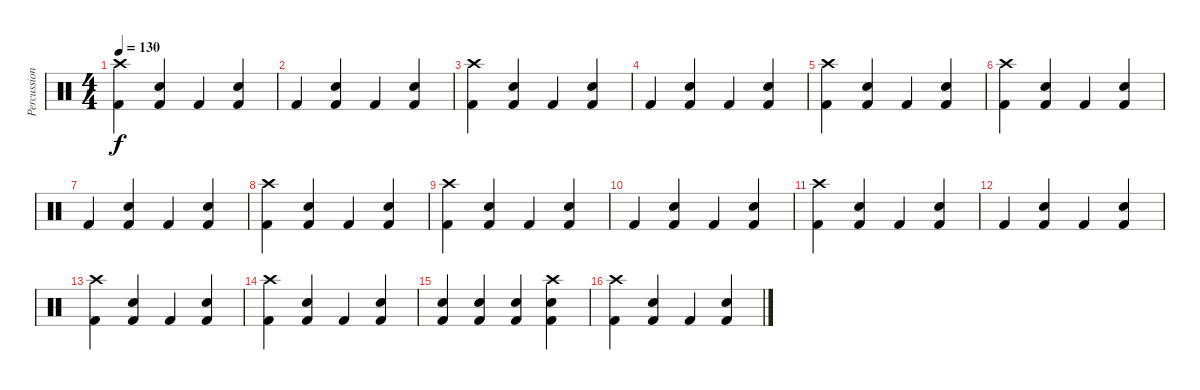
\track ("Percussion" "Percussion") {instrument percussion}
\staff {score}
\articulation defaults
\ts (4 4)
\tempo 130
\clef neutral
\ks c
("Crash high (hit)" "Kick (hit) 2").4{dy f} ("Kick (hit) 2" "Snare (hit) 2").4 "Kick (hit) 2".4 ("Kick (hit) 2" "Snare (hit) 2").4 |
"Kick (hit) 2".4 ("Kick (hit) 2" "Snare (hit) 2").4 "Kick (hit) 2".4 ("Kick (hit) 2" "Snare (hit) 2").4 |
("Crash high (hit)" "Kick (hit) 2").4 ("Kick (hit) 2" "Snare (hit) 2").4 "Kick (hit) 2".4 ("Kick (hit) 2" "Snare (hit) 2").4 |
"Kick (hit) 2".4 ("Kick (hit) 2" "Snare (hit) 2").4 "Kick (hit) 2".4 ("Kick (hit) 2" "Snare (hit) 2").4 |
("Crash high (hit)" "Kick (hit) 2").4 ("Kick (hit) 2" "Snare (hit) 2").4 "Kick (hit) 2".4 ("Kick (hit) 2" "Snare (hit) 2").4 |
("Crash high (hit)" "Kick (hit) 2").4 ("Kick (hit) 2" "Snare (hit) 2").4 "Kick (hit) 2".4 ("Kick (hit) 2" "Snare (hit) 2").4 |
"Kick (hit) 2".4 ("Kick (hit) 2" "Snare (hit) 2").4 "Kick (hit) 2".4 ("Kick (hit) 2" "Snare (hit) 2").4 |
("Crash high (hit)" "Kick (hit) 2").4 ("Kick (hit) 2" "Snare (hit) 2").4 "Kick (hit) 2".4 ("Kick (hit) 2" "Snare (hit) 2").4 |
("Crash high (hit)" "Kick (hit) 2").4 ("Kick (hit) 2" "Snare (hit) 2").4 "Kick (hit) 2".4 ("Kick (hit) 2" "Snare (hit) 2").4 |
"Kick (hit) 2".4 ("Kick (hit) 2" "Snare (hit) 2").4 "Kick (hit) 2".4 ("Kick (hit) 2" "Snare (hit) 2").4 |
("Crash high (hit)" "Kick (hit) 2").4 ("Kick (hit) 2" "Snare (hit) 2").4 "Kick (hit) 2".4 ("Kick (hit) 2" "Snare (hit) 2").4 |
"Kick (hit) 2".4 ("Kick (hit) 2" "Snare (hit) 2").4 "Kick (hit) 2".4 ("Kick (hit) 2" "Snare (hit) 2").4 |
("Crash high (hit)" "Kick (hit) 2").4 ("Kick (hit) 2" "Snare (hit) 2").4 "Kick (hit) 2".4 ("Kick (hit) 2" "Snare (hit) 2").4 |
("Crash high (hit)" "Kick (hit) 2").4 ("Kick (hit) 2" "Snare (hit) 2").4 "Kick (hit) 2".4 ("Kick (hit) 2" "Snare (hit) 2").4 |
("Kick (hit) 2" "Snare (hit) 2").4 ("Kick (hit) 2" "Snare (hit) 2").4 ("Kick (hit) 2" "Snare (hit) 2").4 ("Kick (hit) 2" "Snare (hit) 2" "Crash high (hit)").4 |
("Crash high (hit)" "Kick (hit) 2").4 ("Kick (hit) 2" "Snare (hit) 2").4 "Kick (hit) 2".4 ("Kick (hit) 2" "Snare (hit) 2").4
